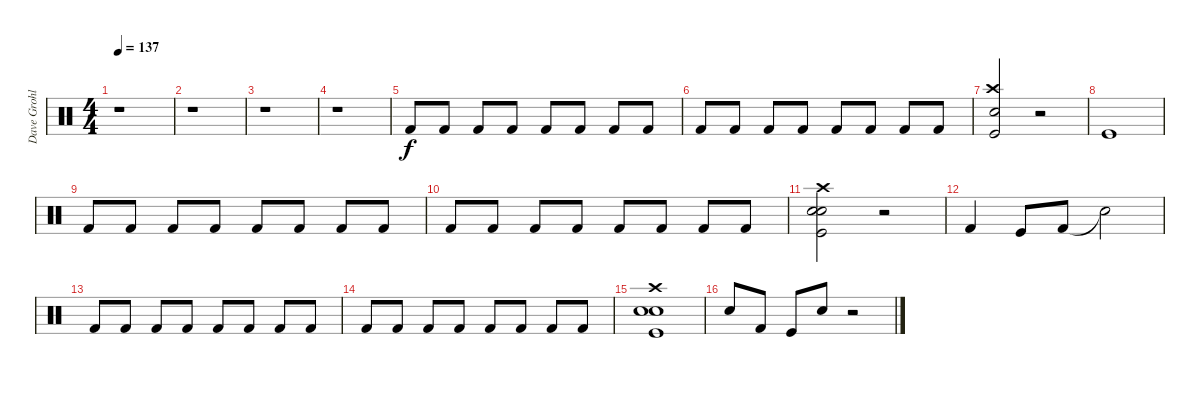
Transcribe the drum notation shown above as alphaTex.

\track ("Dave Grohl" "Dave Grohl") {instrument percussion}
\staff {score}
\articulation defaults
\ts (4 4)
\tempo 137
\clef neutral
\ks c
r.1{dy f} |
r.1 |
r.1 |
r.1 |
"Kick (hit) 2".8 "Kick (hit) 2".8 "Kick (hit) 2".8 "Kick (hit) 2".8 "Kick (hit) 2".8 "Kick (hit) 2".8 "Kick (hit) 2".8 "Kick (hit) 2".8 |
"Kick (hit) 2".8 "Kick (hit) 2".8 "Kick (hit) 2".8 "Kick (hit) 2".8 "Kick (hit) 2".8 "Kick (hit) 2".8 "Kick (hit) 2".8 "Kick (hit) 2".8 |
("Electric Snare (hit)" "Crash high (hit)" "Kick (hit)").2 r.2 |
"Kick (hit)".1 |
"Kick (hit) 2".8 "Kick (hit) 2".8 "Kick (hit) 2".8 "Kick (hit) 2".8 "Kick (hit) 2".8 "Kick (hit) 2".8 "Kick (hit) 2".8 "Kick (hit) 2".8 |
"Kick (hit) 2".8 "Kick (hit) 2".8 "Kick (hit) 2".8 "Kick (hit) 2".8 "Kick (hit) 2".8 "Kick (hit) 2".8 "Kick (hit) 2".8 "Kick (hit) 2".8 |
("Electric Snare (hit)" "Snare (hit) 2" "Crash high (hit)" "Kick (hit)").2 r.2 |
"Kick (hit) 2".4 "Kick (hit)".8 "Kick (hit) 2".8 "Snare (hit)"{t}.2 |
"Kick (hit) 2".8 "Kick (hit) 2".8 "Kick (hit) 2".8 "Kick (hit) 2".8 "Kick (hit) 2".8 "Kick (hit) 2".8 "Kick (hit) 2".8 "Kick (hit) 2".8 |
"Kick (hit) 2".8 "Kick (hit) 2".8 "Kick (hit) 2".8 "Kick (hit) 2".8 "Kick (hit) 2".8 "Kick (hit) 2".8 "Kick (hit) 2".8 "Kick (hit) 2".8 |
("Electric Snare (hit)" "Kick (hit)" "Crash high (hit)" "Snare (hit) 2").1 |
"Snare (hit) 2".8 "Kick (hit) 2".8 "Kick (hit)".8 "Snare (hit) 2".8 r.2
